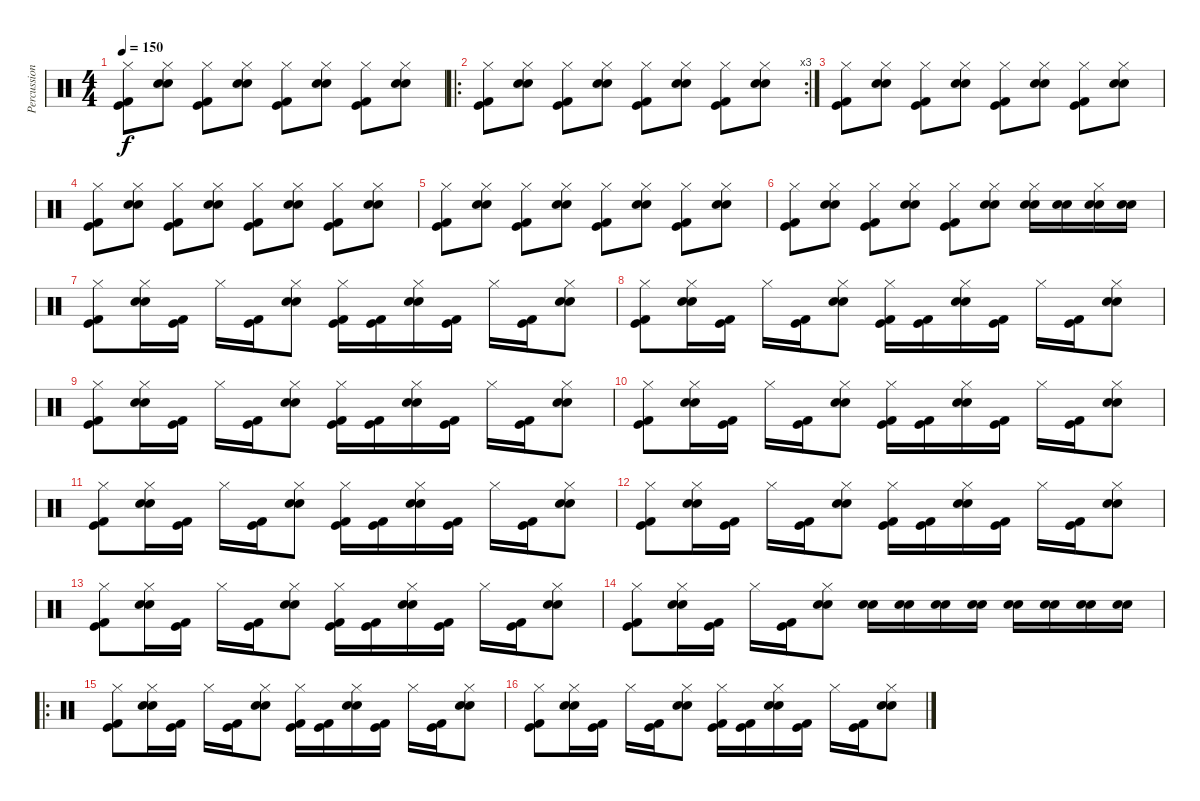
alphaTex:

\track ("Percussions" "Percussion") {instrument percussion}
\staff {score}
\articulation defaults
\ts (4 4)
\tempo 150
\clef neutral
\ks c
("Hi-Hat (closed)" "Kick (hit)" "Kick (hit) 2").8{dy f} ("Hi-Hat (closed)" "Snare (hit) 2" "Electric Snare (hit)").8 ("Hi-Hat (closed)" "Kick (hit)" "Kick (hit) 2").8 ("Hi-Hat (closed)" "Snare (hit) 2" "Electric Snare (hit)").8 ("Hi-Hat (closed)" "Kick (hit)" "Kick (hit) 2").8 ("Hi-Hat (closed)" "Snare (hit) 2" "Electric Snare (hit)").8 ("Hi-Hat (closed)" "Kick (hit)" "Kick (hit) 2").8 ("Hi-Hat (closed)" "Snare (hit) 2" "Electric Snare (hit)").8 |
\ro
\rc 3
("Hi-Hat (closed)" "Kick (hit)" "Kick (hit) 2").8 ("Hi-Hat (closed)" "Snare (hit) 2" "Electric Snare (hit)").8 ("Hi-Hat (closed)" "Kick (hit)" "Kick (hit) 2").8 ("Hi-Hat (closed)" "Snare (hit) 2" "Electric Snare (hit)").8 ("Hi-Hat (closed)" "Kick (hit)" "Kick (hit) 2").8 ("Hi-Hat (closed)" "Snare (hit) 2" "Electric Snare (hit)").8 ("Hi-Hat (closed)" "Kick (hit)" "Kick (hit) 2").8 ("Hi-Hat (closed)" "Snare (hit) 2" "Electric Snare (hit)").8 |
("Hi-Hat (closed)" "Kick (hit)" "Kick (hit) 2").8 ("Hi-Hat (closed)" "Snare (hit) 2" "Electric Snare (hit)").8 ("Hi-Hat (closed)" "Kick (hit)" "Kick (hit) 2").8 ("Hi-Hat (closed)" "Snare (hit) 2" "Electric Snare (hit)").8 ("Hi-Hat (closed)" "Kick (hit)" "Kick (hit) 2").8 ("Hi-Hat (closed)" "Snare (hit) 2" "Electric Snare (hit)").8 ("Hi-Hat (closed)" "Kick (hit)" "Kick (hit) 2").8 ("Hi-Hat (closed)" "Snare (hit) 2" "Electric Snare (hit)").8 |
("Hi-Hat (closed)" "Kick (hit)" "Kick (hit) 2").8 ("Hi-Hat (closed)" "Snare (hit) 2" "Electric Snare (hit)").8 ("Hi-Hat (closed)" "Kick (hit)" "Kick (hit) 2").8 ("Hi-Hat (closed)" "Snare (hit) 2" "Electric Snare (hit)").8 ("Hi-Hat (closed)" "Kick (hit)" "Kick (hit) 2").8 ("Hi-Hat (closed)" "Snare (hit) 2" "Electric Snare (hit)").8 ("Hi-Hat (closed)" "Kick (hit)" "Kick (hit) 2").8 ("Hi-Hat (closed)" "Snare (hit) 2" "Electric Snare (hit)").8 |
("Hi-Hat (closed)" "Kick (hit)" "Kick (hit) 2").8 ("Hi-Hat (closed)" "Snare (hit) 2" "Electric Snare (hit)").8 ("Hi-Hat (closed)" "Kick (hit)" "Kick (hit) 2").8 ("Hi-Hat (closed)" "Snare (hit) 2" "Electric Snare (hit)").8 ("Hi-Hat (closed)" "Kick (hit)" "Kick (hit) 2").8 ("Hi-Hat (closed)" "Snare (hit) 2" "Electric Snare (hit)").8 ("Hi-Hat (closed)" "Kick (hit)" "Kick (hit) 2").8 ("Hi-Hat (closed)" "Snare (hit) 2" "Electric Snare (hit)").8 |
("Hi-Hat (closed)" "Kick (hit)" "Kick (hit) 2").8 ("Hi-Hat (closed)" "Snare (hit) 2" "Electric Snare (hit)").8 ("Hi-Hat (closed)" "Kick (hit)" "Kick (hit) 2").8 ("Hi-Hat (closed)" "Snare (hit) 2" "Electric Snare (hit)").8 ("Hi-Hat (closed)" "Kick (hit)" "Kick (hit) 2").8 ("Hi-Hat (closed)" "Snare (hit) 2" "Electric Snare (hit)").8 ("Hi-Hat (closed)" "Snare (hit) 2" "Electric Snare (hit)").16 ("Snare (hit) 2" "Electric Snare (hit)").16 ("Hi-Hat (closed)" "Snare (hit) 2" "Electric Snare (hit)").16 ("Snare (hit) 2" "Electric Snare (hit)").16 |
("Hi-Hat (closed)" "Kick (hit)" "Kick (hit) 2").8 ("Hi-Hat (closed)" "Snare (hit) 2" "Electric Snare (hit)").16 ("Kick (hit)" "Kick (hit) 2").16 "Hi-Hat (closed)".16 ("Kick (hit)" "Kick (hit) 2").16 ("Hi-Hat (closed)" "Snare (hit) 2" "Electric Snare (hit)").8 ("Hi-Hat (closed)" "Kick (hit)" "Kick (hit) 2").16 ("Kick (hit)" "Kick (hit) 2").16 ("Hi-Hat (closed)" "Snare (hit) 2" "Electric Snare (hit)").16 ("Kick (hit)" "Kick (hit) 2").16 "Hi-Hat (closed)".16 ("Kick (hit)" "Kick (hit) 2").16 ("Hi-Hat (closed)" "Snare (hit) 2" "Electric Snare (hit)").8 |
("Hi-Hat (closed)" "Kick (hit)" "Kick (hit) 2").8 ("Hi-Hat (closed)" "Snare (hit) 2" "Electric Snare (hit)").16 ("Kick (hit)" "Kick (hit) 2").16 "Hi-Hat (closed)".16 ("Kick (hit)" "Kick (hit) 2").16 ("Hi-Hat (closed)" "Snare (hit) 2" "Electric Snare (hit)").8 ("Hi-Hat (closed)" "Kick (hit)" "Kick (hit) 2").16 ("Kick (hit)" "Kick (hit) 2").16 ("Hi-Hat (closed)" "Snare (hit) 2" "Electric Snare (hit)").16 ("Kick (hit)" "Kick (hit) 2").16 "Hi-Hat (closed)".16 ("Kick (hit)" "Kick (hit) 2").16 ("Hi-Hat (closed)" "Snare (hit) 2" "Electric Snare (hit)").8 |
("Hi-Hat (closed)" "Kick (hit)" "Kick (hit) 2").8 ("Hi-Hat (closed)" "Snare (hit) 2" "Electric Snare (hit)").16 ("Kick (hit)" "Kick (hit) 2").16 "Hi-Hat (closed)".16 ("Kick (hit)" "Kick (hit) 2").16 ("Hi-Hat (closed)" "Snare (hit) 2" "Electric Snare (hit)").8 ("Hi-Hat (closed)" "Kick (hit)" "Kick (hit) 2").16 ("Kick (hit)" "Kick (hit) 2").16 ("Hi-Hat (closed)" "Snare (hit) 2" "Electric Snare (hit)").16 ("Kick (hit)" "Kick (hit) 2").16 "Hi-Hat (closed)".16 ("Kick (hit)" "Kick (hit) 2").16 ("Hi-Hat (closed)" "Snare (hit) 2" "Electric Snare (hit)").8 |
("Hi-Hat (closed)" "Kick (hit)" "Kick (hit) 2").8 ("Hi-Hat (closed)" "Snare (hit) 2" "Electric Snare (hit)").16 ("Kick (hit)" "Kick (hit) 2").16 "Hi-Hat (closed)".16 ("Kick (hit)" "Kick (hit) 2").16 ("Hi-Hat (closed)" "Snare (hit) 2" "Electric Snare (hit)").8 ("Hi-Hat (closed)" "Kick (hit)" "Kick (hit) 2").16 ("Kick (hit)" "Kick (hit) 2").16 ("Hi-Hat (closed)" "Snare (hit) 2" "Electric Snare (hit)").16 ("Kick (hit)" "Kick (hit) 2").16 "Hi-Hat (closed)".16 ("Kick (hit)" "Kick (hit) 2").16 ("Hi-Hat (closed)" "Snare (hit) 2" "Electric Snare (hit)").8 |
("Hi-Hat (closed)" "Kick (hit)" "Kick (hit) 2").8 ("Hi-Hat (closed)" "Snare (hit) 2" "Electric Snare (hit)").16 ("Kick (hit)" "Kick (hit) 2").16 "Hi-Hat (closed)".16 ("Kick (hit)" "Kick (hit) 2").16 ("Hi-Hat (closed)" "Snare (hit) 2" "Electric Snare (hit)").8 ("Hi-Hat (closed)" "Kick (hit)" "Kick (hit) 2").16 ("Kick (hit)" "Kick (hit) 2").16 ("Hi-Hat (closed)" "Snare (hit) 2" "Electric Snare (hit)").16 ("Kick (hit)" "Kick (hit) 2").16 "Hi-Hat (closed)".16 ("Kick (hit)" "Kick (hit) 2").16 ("Hi-Hat (closed)" "Snare (hit) 2" "Electric Snare (hit)").8 |
("Hi-Hat (closed)" "Kick (hit)" "Kick (hit) 2").8 ("Hi-Hat (closed)" "Snare (hit) 2" "Electric Snare (hit)").16 ("Kick (hit)" "Kick (hit) 2").16 "Hi-Hat (closed)".16 ("Kick (hit)" "Kick (hit) 2").16 ("Hi-Hat (closed)" "Snare (hit) 2" "Electric Snare (hit)").8 ("Hi-Hat (closed)" "Kick (hit)" "Kick (hit) 2").16 ("Kick (hit)" "Kick (hit) 2").16 ("Hi-Hat (closed)" "Snare (hit) 2" "Electric Snare (hit)").16 ("Kick (hit)" "Kick (hit) 2").16 "Hi-Hat (closed)".16 ("Kick (hit)" "Kick (hit) 2").16 ("Hi-Hat (closed)" "Snare (hit) 2" "Electric Snare (hit)").8 |
("Hi-Hat (closed)" "Kick (hit)" "Kick (hit) 2").8 ("Hi-Hat (closed)" "Snare (hit) 2" "Electric Snare (hit)").16 ("Kick (hit)" "Kick (hit) 2").16 "Hi-Hat (closed)".16 ("Kick (hit)" "Kick (hit) 2").16 ("Hi-Hat (closed)" "Snare (hit) 2" "Electric Snare (hit)").8 ("Hi-Hat (closed)" "Kick (hit)" "Kick (hit) 2").16 ("Kick (hit)" "Kick (hit) 2").16 ("Hi-Hat (closed)" "Snare (hit) 2" "Electric Snare (hit)").16 ("Kick (hit)" "Kick (hit) 2").16 "Hi-Hat (closed)".16 ("Kick (hit)" "Kick (hit) 2").16 ("Hi-Hat (closed)" "Snare (hit) 2" "Electric Snare (hit)").8 |
("Hi-Hat (closed)" "Kick (hit)" "Kick (hit) 2").8 ("Hi-Hat (closed)" "Snare (hit) 2" "Electric Snare (hit)").16 ("Kick (hit)" "Kick (hit) 2").16 "Hi-Hat (closed)".16 ("Kick (hit)" "Kick (hit) 2").16 ("Hi-Hat (closed)" "Snare (hit) 2" "Electric Snare (hit)").8 ("Snare (hit) 2" "Electric Snare (hit)").16 ("Snare (hit) 2" "Electric Snare (hit)").16 ("Snare (hit) 2" "Electric Snare (hit)").16 ("Snare (hit) 2" "Electric Snare (hit)").16 ("Snare (hit) 2" "Electric Snare (hit)").16 ("Snare (hit) 2" "Electric Snare (hit)").16 ("Snare (hit) 2" "Electric Snare (hit)").16 ("Snare (hit) 2" "Electric Snare (hit)").16 |
\ro
("Hi-Hat (closed)" "Kick (hit)" "Kick (hit) 2").8 ("Hi-Hat (closed)" "Snare (hit) 2" "Electric Snare (hit)").16 ("Kick (hit)" "Kick (hit) 2").16 "Hi-Hat (closed)".16 ("Kick (hit)" "Kick (hit) 2").16 ("Hi-Hat (closed)" "Snare (hit) 2" "Electric Snare (hit)").8 ("Hi-Hat (closed)" "Kick (hit)" "Kick (hit) 2").16 ("Kick (hit)" "Kick (hit) 2").16 ("Hi-Hat (closed)" "Snare (hit) 2" "Electric Snare (hit)").16 ("Kick (hit)" "Kick (hit) 2").16 "Hi-Hat (closed)".16 ("Kick (hit)" "Kick (hit) 2").16 ("Hi-Hat (closed)" "Snare (hit) 2" "Electric Snare (hit)").8 |
("Hi-Hat (closed)" "Kick (hit)" "Kick (hit) 2").8 ("Hi-Hat (closed)" "Snare (hit) 2" "Electric Snare (hit)").16 ("Kick (hit)" "Kick (hit) 2").16 "Hi-Hat (closed)".16 ("Kick (hit)" "Kick (hit) 2").16 ("Hi-Hat (closed)" "Snare (hit) 2" "Electric Snare (hit)").8 ("Hi-Hat (closed)" "Kick (hit)" "Kick (hit) 2").16 ("Kick (hit)" "Kick (hit) 2").16 ("Hi-Hat (closed)" "Snare (hit) 2" "Electric Snare (hit)").16 ("Kick (hit)" "Kick (hit) 2").16 "Hi-Hat (closed)".16 ("Kick (hit)" "Kick (hit) 2").16 ("Hi-Hat (closed)" "Snare (hit) 2" "Electric Snare (hit)").8
